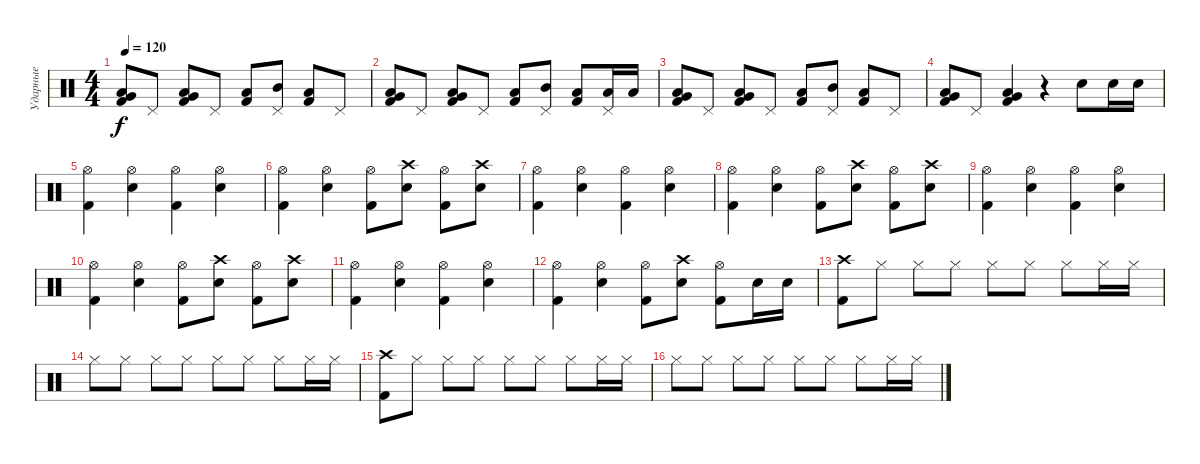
\track ("Ударные" "Ударные") {instrument percussion}
\staff {score}
\articulation defaults
\ts (4 4)
\tempo 120
\clef neutral
\ks c
("Low Tom (hit)" "Very Low Tom (hit)" "Kick (hit) 2").8{dy f} "Pedal Hi-Hat (hit)".8 ("Low Tom (hit)" "Very Low Tom (hit)" "Kick (hit) 2").8 "Pedal Hi-Hat (hit)".8 ("Low Tom (hit)" "Kick (hit) 2").8 ("Pedal Hi-Hat (hit)" "Mid Tom (hit)").8 ("Low Tom (hit)" "Kick (hit) 2").8 "Pedal Hi-Hat (hit)".8 |
("Low Tom (hit)" "Very Low Tom (hit)" "Kick (hit) 2").8 "Pedal Hi-Hat (hit)".8 ("Low Tom (hit)" "Very Low Tom (hit)" "Kick (hit) 2").8 "Pedal Hi-Hat (hit)".8 ("Low Tom (hit)" "Kick (hit) 2").8 ("Pedal Hi-Hat (hit)" "Mid Tom (hit)").8 ("Low Tom (hit)" "Kick (hit) 2").8 ("Pedal Hi-Hat (hit)" "Low Tom (hit)").16 "Low Tom (hit)".16 |
("Low Tom (hit)" "Very Low Tom (hit)" "Kick (hit) 2").8 "Pedal Hi-Hat (hit)".8 ("Low Tom (hit)" "Very Low Tom (hit)" "Kick (hit) 2").8 "Pedal Hi-Hat (hit)".8 ("Low Tom (hit)" "Kick (hit) 2").8 ("Pedal Hi-Hat (hit)" "Mid Tom (hit)").8 ("Low Tom (hit)" "Kick (hit) 2").8 "Pedal Hi-Hat (hit)".8 |
("Low Tom (hit)" "Very Low Tom (hit)" "Kick (hit) 2").8 "Pedal Hi-Hat (hit)".8 ("Low Tom (hit)" "Very Low Tom (hit)" "Kick (hit) 2").4 r.4 "Electric Snare (hit)".8 "Electric Snare (hit)".16 "Electric Snare (hit)".16 |
("Hi-Hat (open)" "Kick (hit) 2").4 ("Hi-Hat (open)" "Electric Snare (hit)").4 ("Hi-Hat (open)" "Kick (hit) 2").4 ("Hi-Hat (open)" "Electric Snare (hit)").4 |
("Hi-Hat (open)" "Kick (hit) 2").4 ("Hi-Hat (open)" "Electric Snare (hit)").4 ("Hi-Hat (open)" "Kick (hit) 2").8 ("Crash high (hit)" "Electric Snare (hit)").8 ("Hi-Hat (open)" "Kick (hit) 2").8 ("Crash high (hit)" "Electric Snare (hit)").8 |
("Hi-Hat (open)" "Kick (hit) 2").4 ("Hi-Hat (open)" "Electric Snare (hit)").4 ("Hi-Hat (open)" "Kick (hit) 2").4 ("Hi-Hat (open)" "Electric Snare (hit)").4 |
("Hi-Hat (open)" "Kick (hit) 2").4 ("Hi-Hat (open)" "Electric Snare (hit)").4 ("Hi-Hat (open)" "Kick (hit) 2").8 ("Crash high (hit)" "Electric Snare (hit)").8 ("Hi-Hat (open)" "Kick (hit) 2").8 ("Crash high (hit)" "Electric Snare (hit)").8 |
("Hi-Hat (open)" "Kick (hit) 2").4 ("Hi-Hat (open)" "Electric Snare (hit)").4 ("Hi-Hat (open)" "Kick (hit) 2").4 ("Hi-Hat (open)" "Electric Snare (hit)").4 |
("Hi-Hat (open)" "Kick (hit) 2").4 ("Hi-Hat (open)" "Electric Snare (hit)").4 ("Hi-Hat (open)" "Kick (hit) 2").8 ("Crash high (hit)" "Electric Snare (hit)").8 ("Hi-Hat (open)" "Kick (hit) 2").8 ("Crash high (hit)" "Electric Snare (hit)").8 |
("Hi-Hat (open)" "Kick (hit) 2").4 ("Hi-Hat (open)" "Electric Snare (hit)").4 ("Hi-Hat (open)" "Kick (hit) 2").4 ("Hi-Hat (open)" "Electric Snare (hit)").4 |
("Hi-Hat (open)" "Kick (hit) 2").4 ("Hi-Hat (open)" "Electric Snare (hit)").4 ("Hi-Hat (open)" "Kick (hit) 2").8 ("Crash high (hit)" "Electric Snare (hit)").8 ("Hi-Hat (open)" "Kick (hit) 2").8 "Electric Snare (hit)".16 "Electric Snare (hit)".16 |
("Crash high (hit)" "Kick (hit) 2").8 "Hi-Hat (closed)".8 "Hi-Hat (closed)".8 "Hi-Hat (closed)".8 "Hi-Hat (closed)".8 "Hi-Hat (closed)".8 "Hi-Hat (closed)".8 "Hi-Hat (closed)".16 "Hi-Hat (closed)".16 |
"Hi-Hat (closed)".8 "Hi-Hat (closed)".8 "Hi-Hat (closed)".8 "Hi-Hat (closed)".8 "Hi-Hat (closed)".8 "Hi-Hat (closed)".8 "Hi-Hat (closed)".8 "Hi-Hat (closed)".16 "Hi-Hat (closed)".16 |
("Crash high (hit)" "Kick (hit) 2").8 "Hi-Hat (closed)".8 "Hi-Hat (closed)".8 "Hi-Hat (closed)".8 "Hi-Hat (closed)".8 "Hi-Hat (closed)".8 "Hi-Hat (closed)".8 "Hi-Hat (closed)".16 "Hi-Hat (closed)".16 |
"Hi-Hat (closed)".8 "Hi-Hat (closed)".8 "Hi-Hat (closed)".8 "Hi-Hat (closed)".8 "Hi-Hat (closed)".8 "Hi-Hat (closed)".8 "Hi-Hat (closed)".8 "Hi-Hat (closed)".16 "Hi-Hat (closed)".16
